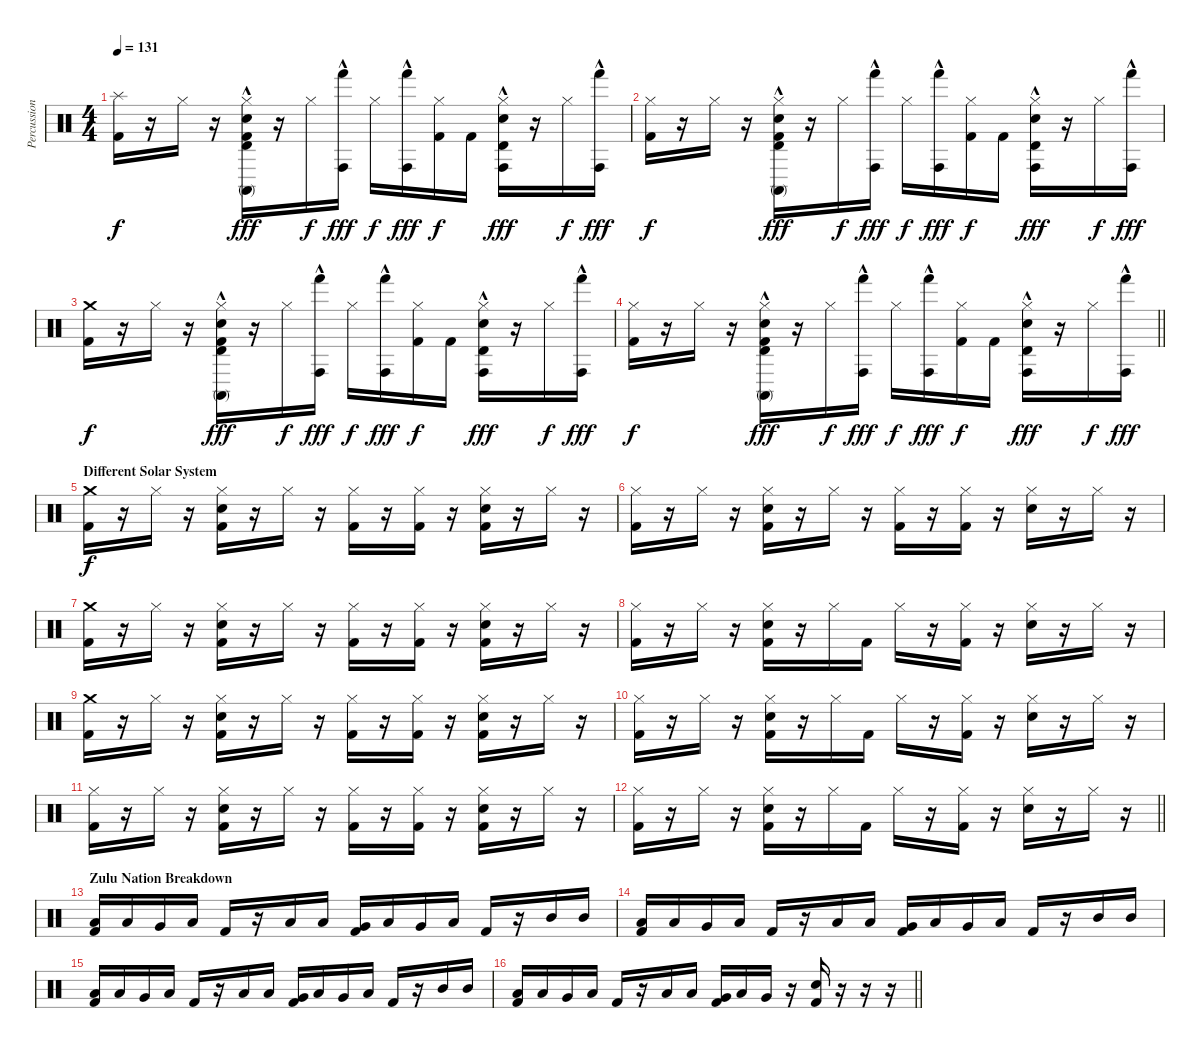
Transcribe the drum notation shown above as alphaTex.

\track ("Percussion" "Percussion") {instrument percussion}
\staff {score}
\articulation defaults
\ts (4 4)
\tempo 131
\clef neutral
\ks c
("Splash (hit)" "Kick (hit) 2").16{dy f} r.16 "Hi-Hat (closed)".16 r.16 ("Hi-Hat (closed)" "Conga high (mute)"{hac} "Timbale high (hit)" "Electric Snare (hit)" "Kick (hit) 2").16{dy fff} r.16 "Hi-Hat (closed)".16{dy f} ("Conga high (hit)"{hac} "Hand (hit)"{hac}).16{dy fff} "Hi-Hat (closed)".16{dy f} ("Conga high (hit)"{hac} "Hand (hit)"{hac}).16{dy fff} ("Hi-Hat (closed)" "Kick (hit) 2").16{dy f} "Kick (hit) 2".16 ("Hi-Hat (closed)" "Conga high (hit)"{hac} "Timbale high (hit)" "Electric Snare (hit)").16{dy fff} r.16 "Hi-Hat (closed)".16{dy f} ("Conga high (hit)"{hac} "Hand (hit)"{hac}).16{dy fff} |
("Hi-Hat (closed)" "Kick (hit) 2").16{dy f} r.16 "Hi-Hat (closed)".16 r.16 ("Hi-Hat (closed)" "Conga high (mute)"{hac} "Timbale high (hit)" "Electric Snare (hit)" "Kick (hit) 2").16{dy fff} r.16 "Hi-Hat (closed)".16{dy f} ("Conga high (hit)"{hac} "Hand (hit)"{hac}).16{dy fff} "Hi-Hat (closed)".16{dy f} ("Conga high (hit)"{hac} "Hand (hit)"{hac}).16{dy fff} ("Hi-Hat (closed)" "Kick (hit) 2").16{dy f} "Kick (hit) 2".16 ("Hi-Hat (closed)" "Conga high (hit)"{hac} "Timbale high (hit)" "Electric Snare (hit)").16{dy fff} r.16 "Hi-Hat (closed)".16{dy f} ("Conga high (hit)"{hac} "Hand (hit)"{hac}).16{dy fff} |
("Crash medium (hit)" "Kick (hit) 2").16{dy f} r.16 "Hi-Hat (closed)".16 r.16 ("Hi-Hat (closed)" "Conga high (mute)"{hac} "Timbale high (hit)" "Electric Snare (hit)" "Kick (hit) 2").16{dy fff} r.16 "Hi-Hat (closed)".16{dy f} ("Conga high (hit)"{hac} "Hand (hit)"{hac}).16{dy fff} "Hi-Hat (closed)".16{dy f} ("Conga high (hit)"{hac} "Hand (hit)"{hac}).16{dy fff} ("Hi-Hat (closed)" "Kick (hit) 2").16{dy f} "Kick (hit) 2".16 ("Hi-Hat (closed)" "Conga high (hit)"{hac} "Timbale high (hit)" "Electric Snare (hit)").16{dy fff} r.16 "Hi-Hat (closed)".16{dy f} ("Conga high (hit)"{hac} "Hand (hit)"{hac}).16{dy fff} |
\barLineRight lightlight
("Hi-Hat (closed)" "Kick (hit) 2").16{dy f} r.16 "Hi-Hat (closed)".16 r.16 ("Hi-Hat (closed)" "Conga high (mute)"{hac} "Timbale high (hit)" "Electric Snare (hit)" "Kick (hit) 2").16{dy fff} r.16 "Hi-Hat (closed)".16{dy f} ("Conga high (hit)"{hac} "Hand (hit)"{hac}).16{dy fff} "Hi-Hat (closed)".16{dy f} ("Conga high (hit)"{hac} "Hand (hit)"{hac}).16{dy fff} ("Hi-Hat (closed)" "Kick (hit) 2").16{dy f} "Kick (hit) 2".16 ("Hi-Hat (closed)" "Conga high (hit)"{hac} "Timbale high (hit)" "Electric Snare (hit)").16{dy fff} r.16 "Hi-Hat (closed)".16{dy f} ("Conga high (hit)"{hac} "Hand (hit)"{hac}).16{dy fff} |
\section ("" "Different Solar System")
("Crash medium (hit)" "Kick (hit) 2").16{dy f} r.16 "Hi-Hat (closed)".16 r.16 ("Hi-Hat (closed)" "Electric Snare (hit)" "Kick (hit) 2").16 r.16 "Hi-Hat (closed)".16 r.16 ("Hi-Hat (closed)" "Kick (hit) 2").16 r.16 ("Hi-Hat (closed)" "Kick (hit) 2").16 r.16 ("Hi-Hat (closed)" "Electric Snare (hit)" "Kick (hit) 2").16 r.16 "Hi-Hat (closed)".16 r.16 |
("Hi-Hat (closed)" "Kick (hit) 2").16 r.16 "Hi-Hat (closed)".16 r.16 ("Hi-Hat (closed)" "Electric Snare (hit)" "Kick (hit) 2").16 r.16 "Hi-Hat (closed)".16 r.16 ("Hi-Hat (closed)" "Kick (hit) 2").16 r.16 ("Hi-Hat (closed)" "Kick (hit) 2").16 r.16 ("Hi-Hat (closed)" "Electric Snare (hit)").16 r.16 "Hi-Hat (closed)".16 r.16 |
("Crash medium (hit)" "Kick (hit) 2").16 r.16 "Hi-Hat (closed)".16 r.16 ("Hi-Hat (closed)" "Electric Snare (hit)" "Kick (hit) 2").16 r.16 "Hi-Hat (closed)".16 r.16 ("Hi-Hat (closed)" "Kick (hit) 2").16 r.16 ("Hi-Hat (closed)" "Kick (hit) 2").16 r.16 ("Hi-Hat (closed)" "Electric Snare (hit)" "Kick (hit) 2").16 r.16 "Hi-Hat (closed)".16 r.16 |
("Hi-Hat (closed)" "Kick (hit) 2").16 r.16 "Hi-Hat (closed)".16 r.16 ("Hi-Hat (closed)" "Electric Snare (hit)" "Kick (hit) 2").16 r.16 "Hi-Hat (closed)".16 "Kick (hit) 2".16 "Hi-Hat (closed)".16 r.16 ("Hi-Hat (closed)" "Kick (hit) 2").16 r.16 ("Hi-Hat (closed)" "Electric Snare (hit)").16 r.16 "Hi-Hat (closed)".16 r.16 |
("Crash medium (hit)" "Kick (hit) 2").16 r.16 "Hi-Hat (closed)".16 r.16 ("Hi-Hat (closed)" "Electric Snare (hit)" "Kick (hit) 2").16 r.16 "Hi-Hat (closed)".16 r.16 ("Hi-Hat (closed)" "Kick (hit) 2").16 r.16 ("Hi-Hat (closed)" "Kick (hit) 2").16 r.16 ("Hi-Hat (closed)" "Electric Snare (hit)" "Kick (hit) 2").16 r.16 "Hi-Hat (closed)".16 r.16 |
("Hi-Hat (closed)" "Kick (hit) 2").16 r.16 "Hi-Hat (closed)".16 r.16 ("Hi-Hat (closed)" "Electric Snare (hit)" "Kick (hit) 2").16 r.16 "Hi-Hat (closed)".16 "Kick (hit) 2".16 "Hi-Hat (closed)".16 r.16 ("Hi-Hat (closed)" "Kick (hit) 2").16 r.16 ("Hi-Hat (closed)" "Electric Snare (hit)").16 r.16 "Hi-Hat (closed)".16 r.16 |
("Hi-Hat (closed)" "Kick (hit) 2").16 r.16 "Hi-Hat (closed)".16 r.16 ("Hi-Hat (closed)" "Electric Snare (hit)" "Kick (hit) 2").16 r.16 "Hi-Hat (closed)".16 r.16 ("Hi-Hat (closed)" "Kick (hit) 2").16 r.16 ("Hi-Hat (closed)" "Kick (hit) 2").16 r.16 ("Hi-Hat (closed)" "Electric Snare (hit)" "Kick (hit) 2").16 r.16 "Hi-Hat (closed)".16 r.16 |
\barLineRight lightlight
("Hi-Hat (closed)" "Kick (hit) 2").16 r.16 "Hi-Hat (closed)".16 r.16 ("Hi-Hat (closed)" "Electric Snare (hit)" "Kick (hit) 2").16 r.16 "Hi-Hat (closed)".16 "Kick (hit) 2".16 "Hi-Hat (closed)".16 r.16 ("Hi-Hat (closed)" "Kick (hit) 2").16 r.16 ("Hi-Hat (closed)" "Electric Snare (hit)").16 r.16 "Hi-Hat (closed)".16 r.16 |
\section ("" "Zulu Nation Breakdown")
("Low Tom (hit)" "Kick (hit) 2").16 "Low Tom (hit)".16 "Very Low Tom (hit)".16 "Low Tom (hit)".16 "Kick (hit) 2".16 r.16 "Low Tom (hit)".16 "Low Tom (hit)".16 ("Very Low Tom (hit)" "Kick (hit) 2").16 "Low Tom (hit)".16 "Very Low Tom (hit)".16 "Low Tom (hit)".16 "Kick (hit) 2".16 r.16 "Mid Tom (hit)".16 "Mid Tom (hit)".16 |
("Low Tom (hit)" "Kick (hit) 2").16 "Low Tom (hit)".16 "Very Low Tom (hit)".16 "Low Tom (hit)".16 "Kick (hit) 2".16 r.16 "Low Tom (hit)".16 "Low Tom (hit)".16 ("Very Low Tom (hit)" "Kick (hit) 2").16 "Low Tom (hit)".16 "Very Low Tom (hit)".16 "Low Tom (hit)".16 "Kick (hit) 2".16 r.16 "Mid Tom (hit)".16 "Mid Tom (hit)".16 |
("Low Tom (hit)" "Kick (hit) 2").16 "Low Tom (hit)".16 "Very Low Tom (hit)".16 "Low Tom (hit)".16 "Kick (hit) 2".16 r.16 "Low Tom (hit)".16 "Low Tom (hit)".16 ("Very Low Tom (hit)" "Kick (hit) 2").16 "Low Tom (hit)".16 "Very Low Tom (hit)".16 "Low Tom (hit)".16 "Kick (hit) 2".16 r.16 "Mid Tom (hit)".16 "Mid Tom (hit)".16 |
\barLineRight lightlight
("Low Tom (hit)" "Kick (hit) 2").16 "Low Tom (hit)".16 "Very Low Tom (hit)".16 "Low Tom (hit)".16 "Kick (hit) 2".16 r.16 "Low Tom (hit)".16 "Low Tom (hit)".16 ("Very Low Tom (hit)" "Kick (hit) 2").16 "Low Tom (hit)".16 "Very Low Tom (hit)".16 r.16 ("Electric Snare (hit)" "Kick (hit) 2").16 r.16 r.16 r.16
